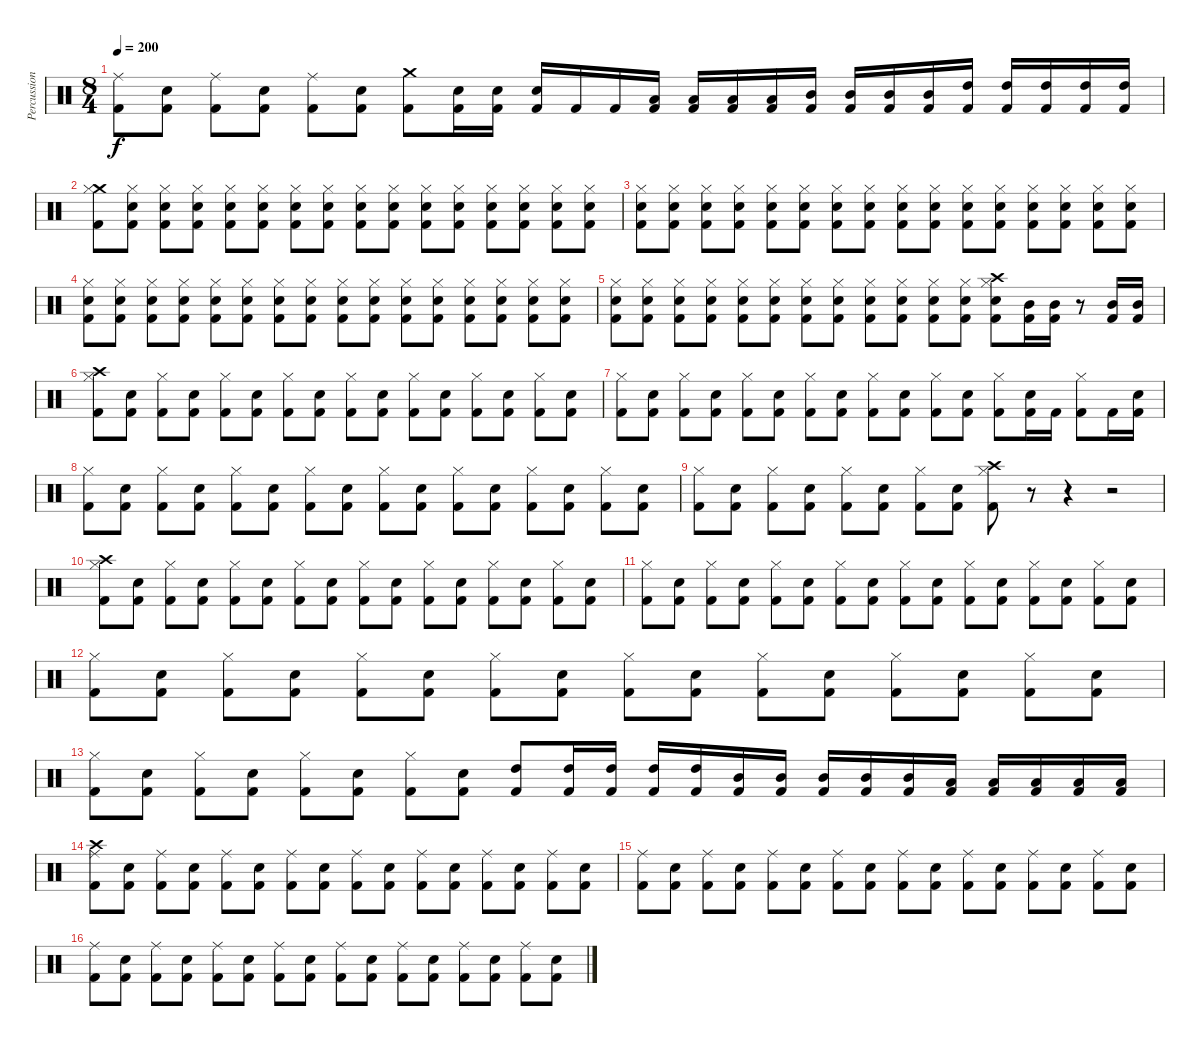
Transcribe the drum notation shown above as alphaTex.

\track ("Percussion" "Percussion") {instrument percussion}
\staff {score}
\articulation defaults
\ts (8 4)
\tempo 200
\clef neutral
\ks c
("Ride (middle)" "Kick (hit) 2").8{dy f} ("Electric Snare (hit)" "Kick (hit) 2").8 ("Ride (middle)" "Kick (hit) 2").8 ("Electric Snare (hit)" "Kick (hit) 2").8 ("Ride (middle)" "Kick (hit) 2").8 ("Electric Snare (hit)" "Kick (hit) 2").8 ("Crash medium (hit)" "Kick (hit) 2").8 ("Electric Snare (hit)" "Kick (hit) 2").16 ("Electric Snare (hit)" "Kick (hit) 2").16 ("Electric Snare (hit)" "Kick (hit) 2").16 "Kick (hit) 2".16 "Kick (hit) 2".16 ("Low Tom (hit)" "Kick (hit) 2").16 ("Low Tom (hit)" "Kick (hit) 2").16 ("Low Tom (hit)" "Kick (hit) 2").16 ("Low Tom (hit)" "Kick (hit) 2").16 ("Mid Tom (hit)" "Kick (hit) 2").16 ("Mid Tom (hit)" "Kick (hit) 2").16 ("Mid Tom (hit)" "Kick (hit) 2").16 ("Mid Tom (hit)" "Kick (hit) 2").16 ("High Tom (hit)" "Kick (hit) 2").16 ("High Tom (hit)" "Kick (hit) 2").16 ("High Tom (hit)" "Kick (hit) 2").16 ("High Tom (hit)" "Kick (hit) 2").16 ("High Tom (hit)" "Kick (hit) 2").16 |
("Crash medium (hit)" "Hi-Hat (closed)" "Kick (hit) 2").8 ("Hi-Hat (closed)" "Electric Snare (hit)" "Kick (hit) 2").8 ("Hi-Hat (closed)" "Electric Snare (hit)" "Kick (hit) 2").8 ("Hi-Hat (closed)" "Electric Snare (hit)" "Kick (hit) 2").8 ("Hi-Hat (closed)" "Electric Snare (hit)" "Kick (hit) 2").8 ("Hi-Hat (closed)" "Electric Snare (hit)" "Kick (hit) 2").8 ("Hi-Hat (closed)" "Electric Snare (hit)" "Kick (hit) 2").8 ("Hi-Hat (closed)" "Electric Snare (hit)" "Kick (hit) 2").8 ("Hi-Hat (closed)" "Electric Snare (hit)" "Kick (hit) 2").8 ("Hi-Hat (closed)" "Electric Snare (hit)" "Kick (hit) 2").8 ("Hi-Hat (closed)" "Electric Snare (hit)" "Kick (hit) 2").8 ("Hi-Hat (closed)" "Electric Snare (hit)" "Kick (hit) 2").8 ("Hi-Hat (closed)" "Electric Snare (hit)" "Kick (hit) 2").8 ("Hi-Hat (closed)" "Electric Snare (hit)" "Kick (hit) 2").8 ("Hi-Hat (closed)" "Electric Snare (hit)" "Kick (hit) 2").8 ("Hi-Hat (closed)" "Electric Snare (hit)" "Kick (hit) 2").8 |
("Hi-Hat (closed)" "Electric Snare (hit)" "Kick (hit) 2").8 ("Hi-Hat (closed)" "Electric Snare (hit)" "Kick (hit) 2").8 ("Hi-Hat (closed)" "Electric Snare (hit)" "Kick (hit) 2").8 ("Hi-Hat (closed)" "Electric Snare (hit)" "Kick (hit) 2").8 ("Hi-Hat (closed)" "Electric Snare (hit)" "Kick (hit) 2").8 ("Hi-Hat (closed)" "Electric Snare (hit)" "Kick (hit) 2").8 ("Hi-Hat (closed)" "Electric Snare (hit)" "Kick (hit) 2").8 ("Hi-Hat (closed)" "Electric Snare (hit)" "Kick (hit) 2").8 ("Hi-Hat (closed)" "Electric Snare (hit)" "Kick (hit) 2").8 ("Hi-Hat (closed)" "Electric Snare (hit)" "Kick (hit) 2").8 ("Hi-Hat (closed)" "Electric Snare (hit)" "Kick (hit) 2").8 ("Hi-Hat (closed)" "Electric Snare (hit)" "Kick (hit) 2").8 ("Hi-Hat (closed)" "Electric Snare (hit)" "Kick (hit) 2").8 ("Hi-Hat (closed)" "Electric Snare (hit)" "Kick (hit) 2").8 ("Hi-Hat (closed)" "Electric Snare (hit)" "Kick (hit) 2").8 ("Hi-Hat (closed)" "Electric Snare (hit)" "Kick (hit) 2").8 |
("Hi-Hat (closed)" "Electric Snare (hit)" "Kick (hit) 2").8 ("Hi-Hat (closed)" "Electric Snare (hit)" "Kick (hit) 2").8 ("Hi-Hat (closed)" "Electric Snare (hit)" "Kick (hit) 2").8 ("Hi-Hat (closed)" "Electric Snare (hit)" "Kick (hit) 2").8 ("Hi-Hat (closed)" "Electric Snare (hit)" "Kick (hit) 2").8 ("Hi-Hat (closed)" "Electric Snare (hit)" "Kick (hit) 2").8 ("Hi-Hat (closed)" "Electric Snare (hit)" "Kick (hit) 2").8 ("Hi-Hat (closed)" "Electric Snare (hit)" "Kick (hit) 2").8 ("Hi-Hat (closed)" "Electric Snare (hit)" "Kick (hit) 2").8 ("Hi-Hat (closed)" "Electric Snare (hit)" "Kick (hit) 2").8 ("Hi-Hat (closed)" "Electric Snare (hit)" "Kick (hit) 2").8 ("Hi-Hat (closed)" "Electric Snare (hit)" "Kick (hit) 2").8 ("Hi-Hat (closed)" "Electric Snare (hit)" "Kick (hit) 2").8 ("Hi-Hat (closed)" "Electric Snare (hit)" "Kick (hit) 2").8 ("Hi-Hat (closed)" "Electric Snare (hit)" "Kick (hit) 2").8 ("Hi-Hat (closed)" "Electric Snare (hit)" "Kick (hit) 2").8 |
("Hi-Hat (closed)" "Electric Snare (hit)" "Kick (hit) 2").8 ("Hi-Hat (closed)" "Electric Snare (hit)" "Kick (hit) 2").8 ("Hi-Hat (closed)" "Electric Snare (hit)" "Kick (hit) 2").8 ("Hi-Hat (closed)" "Electric Snare (hit)" "Kick (hit) 2").8 ("Hi-Hat (closed)" "Electric Snare (hit)" "Kick (hit) 2").8 ("Hi-Hat (closed)" "Electric Snare (hit)" "Kick (hit) 2").8 ("Hi-Hat (closed)" "Electric Snare (hit)" "Kick (hit) 2").8 ("Hi-Hat (closed)" "Electric Snare (hit)" "Kick (hit) 2").8 ("Hi-Hat (closed)" "Electric Snare (hit)" "Kick (hit) 2").8 ("Hi-Hat (closed)" "Electric Snare (hit)" "Kick (hit) 2").8 ("Hi-Hat (closed)" "Electric Snare (hit)" "Kick (hit) 2").8 ("Hi-Hat (closed)" "Electric Snare (hit)" "Kick (hit) 2").8 ("Crash high (hit)" "Hi-Hat (closed)" "Electric Snare (hit)" "Kick (hit) 2").8 ("Mid Tom (hit)" "Kick (hit) 2").16 ("Mid Tom (hit)" "Kick (hit) 2").16 r.8 ("Mid Tom (hit)" "Kick (hit) 2").16 ("Mid Tom (hit)" "Kick (hit) 2").16 |
("Crash high (hit)" "Hi-Hat (closed)" "Kick (hit) 2").8 ("Electric Snare (hit)" "Kick (hit) 2").8 ("Hi-Hat (closed)" "Kick (hit) 2").8 ("Electric Snare (hit)" "Kick (hit) 2").8 ("Hi-Hat (closed)" "Kick (hit) 2").8 ("Electric Snare (hit)" "Kick (hit) 2").8 ("Hi-Hat (closed)" "Kick (hit) 2").8 ("Electric Snare (hit)" "Kick (hit) 2").8 ("Hi-Hat (closed)" "Kick (hit) 2").8 ("Electric Snare (hit)" "Kick (hit) 2").8 ("Hi-Hat (closed)" "Kick (hit) 2").8 ("Electric Snare (hit)" "Kick (hit) 2").8 ("Hi-Hat (closed)" "Kick (hit) 2").8 ("Electric Snare (hit)" "Kick (hit) 2").8 ("Hi-Hat (closed)" "Kick (hit) 2").8 ("Electric Snare (hit)" "Kick (hit) 2").8 |
("Hi-Hat (closed)" "Kick (hit) 2").8 ("Electric Snare (hit)" "Kick (hit) 2").8 ("Hi-Hat (closed)" "Kick (hit) 2").8 ("Electric Snare (hit)" "Kick (hit) 2").8 ("Hi-Hat (closed)" "Kick (hit) 2").8 ("Electric Snare (hit)" "Kick (hit) 2").8 ("Hi-Hat (closed)" "Kick (hit) 2").8 ("Electric Snare (hit)" "Kick (hit) 2").8 ("Hi-Hat (closed)" "Kick (hit) 2").8 ("Electric Snare (hit)" "Kick (hit) 2").8 ("Hi-Hat (closed)" "Kick (hit) 2").8 ("Electric Snare (hit)" "Kick (hit) 2").8 ("Hi-Hat (closed)" "Kick (hit) 2").8 ("Electric Snare (hit)" "Kick (hit) 2").16 "Kick (hit) 2".16 ("Hi-Hat (closed)" "Kick (hit) 2").8 "Kick (hit) 2".16 ("Electric Snare (hit)" "Kick (hit) 2").16 |
("Hi-Hat (closed)" "Kick (hit) 2").8 ("Electric Snare (hit)" "Kick (hit) 2").8 ("Hi-Hat (closed)" "Kick (hit) 2").8 ("Electric Snare (hit)" "Kick (hit) 2").8 ("Hi-Hat (closed)" "Kick (hit) 2").8 ("Electric Snare (hit)" "Kick (hit) 2").8 ("Hi-Hat (closed)" "Kick (hit) 2").8 ("Electric Snare (hit)" "Kick (hit) 2").8 ("Hi-Hat (closed)" "Kick (hit) 2").8 ("Electric Snare (hit)" "Kick (hit) 2").8 ("Hi-Hat (closed)" "Kick (hit) 2").8 ("Electric Snare (hit)" "Kick (hit) 2").8 ("Hi-Hat (closed)" "Kick (hit) 2").8 ("Electric Snare (hit)" "Kick (hit) 2").8 ("Hi-Hat (closed)" "Kick (hit) 2").8 ("Electric Snare (hit)" "Kick (hit) 2").8 |
("Hi-Hat (closed)" "Kick (hit) 2").8 ("Electric Snare (hit)" "Kick (hit) 2").8 ("Hi-Hat (closed)" "Kick (hit) 2").8 ("Electric Snare (hit)" "Kick (hit) 2").8 ("Hi-Hat (closed)" "Kick (hit) 2").8 ("Electric Snare (hit)" "Kick (hit) 2").8 ("Hi-Hat (closed)" "Kick (hit) 2").8 ("Electric Snare (hit)" "Kick (hit) 2").8 ("Crash high (hit)" "Hi-Hat (closed)" "Kick (hit) 2").8 r.8 r.4 r.2 |
("Crash high (hit)" "Hi-Hat (closed)" "Kick (hit) 2").8 ("Electric Snare (hit)" "Kick (hit) 2").8 ("Hi-Hat (closed)" "Kick (hit) 2").8 ("Electric Snare (hit)" "Kick (hit) 2").8 ("Hi-Hat (closed)" "Kick (hit) 2").8 ("Electric Snare (hit)" "Kick (hit) 2").8 ("Hi-Hat (closed)" "Kick (hit) 2").8 ("Electric Snare (hit)" "Kick (hit) 2").8 ("Hi-Hat (closed)" "Kick (hit) 2").8 ("Electric Snare (hit)" "Kick (hit) 2").8 ("Hi-Hat (closed)" "Kick (hit) 2").8 ("Electric Snare (hit)" "Kick (hit) 2").8 ("Hi-Hat (closed)" "Kick (hit) 2").8 ("Electric Snare (hit)" "Kick (hit) 2").8 ("Hi-Hat (closed)" "Kick (hit) 2").8 ("Electric Snare (hit)" "Kick (hit) 2").8 |
("Hi-Hat (closed)" "Kick (hit) 2").8 ("Electric Snare (hit)" "Kick (hit) 2").8 ("Hi-Hat (closed)" "Kick (hit) 2").8 ("Electric Snare (hit)" "Kick (hit) 2").8 ("Hi-Hat (closed)" "Kick (hit) 2").8 ("Electric Snare (hit)" "Kick (hit) 2").8 ("Hi-Hat (closed)" "Kick (hit) 2").8 ("Electric Snare (hit)" "Kick (hit) 2").8 ("Hi-Hat (closed)" "Kick (hit) 2").8 ("Electric Snare (hit)" "Kick (hit) 2").8 ("Hi-Hat (closed)" "Kick (hit) 2").8 ("Electric Snare (hit)" "Kick (hit) 2").8 ("Hi-Hat (closed)" "Kick (hit) 2").8 ("Electric Snare (hit)" "Kick (hit) 2").8 ("Hi-Hat (closed)" "Kick (hit) 2").8 ("Electric Snare (hit)" "Kick (hit) 2").8 |
("Hi-Hat (closed)" "Kick (hit) 2").8 ("Electric Snare (hit)" "Kick (hit) 2").8 ("Hi-Hat (closed)" "Kick (hit) 2").8 ("Electric Snare (hit)" "Kick (hit) 2").8 ("Hi-Hat (closed)" "Kick (hit) 2").8 ("Electric Snare (hit)" "Kick (hit) 2").8 ("Hi-Hat (closed)" "Kick (hit) 2").8 ("Electric Snare (hit)" "Kick (hit) 2").8 ("Hi-Hat (closed)" "Kick (hit) 2").8 ("Electric Snare (hit)" "Kick (hit) 2").8 ("Hi-Hat (closed)" "Kick (hit) 2").8 ("Electric Snare (hit)" "Kick (hit) 2").8 ("Hi-Hat (closed)" "Kick (hit) 2").8 ("Electric Snare (hit)" "Kick (hit) 2").8 ("Hi-Hat (closed)" "Kick (hit) 2").8 ("Electric Snare (hit)" "Kick (hit) 2").8 |
("Hi-Hat (closed)" "Kick (hit) 2").8 ("Electric Snare (hit)" "Kick (hit) 2").8 ("Hi-Hat (closed)" "Kick (hit) 2").8 ("Electric Snare (hit)" "Kick (hit) 2").8 ("Hi-Hat (closed)" "Kick (hit) 2").8 ("Electric Snare (hit)" "Kick (hit) 2").8 ("Hi-Hat (closed)" "Kick (hit) 2").8 ("Electric Snare (hit)" "Kick (hit) 2").8 ("High Tom (hit)" "Kick (hit) 2").8 ("High Tom (hit)" "Kick (hit) 2").16 ("High Tom (hit)" "Kick (hit) 2").16 ("High Tom (hit)" "Kick (hit) 2").16 ("High Tom (hit)" "Kick (hit) 2").16 ("Mid Tom (hit)" "Kick (hit) 2").16 ("Mid Tom (hit)" "Kick (hit) 2").16 ("Mid Tom (hit)" "Kick (hit) 2").16 ("Mid Tom (hit)" "Kick (hit) 2").16 ("Mid Tom (hit)" "Kick (hit) 2").16 ("Low Tom (hit)" "Kick (hit) 2").16 ("Low Tom (hit)" "Kick (hit) 2").16 ("Low Tom (hit)" "Kick (hit) 2").16 ("Low Tom (hit)" "Kick (hit) 2").16 ("Low Tom (hit)" "Kick (hit) 2").16 |
("Crash high (hit)" "Ride (middle)" "Kick (hit) 2").8 ("Electric Snare (hit)" "Kick (hit) 2").8 ("Ride (middle)" "Kick (hit) 2").8 ("Electric Snare (hit)" "Kick (hit) 2").8 ("Ride (middle)" "Kick (hit) 2").8 ("Electric Snare (hit)" "Kick (hit) 2").8 ("Ride (middle)" "Kick (hit) 2").8 ("Electric Snare (hit)" "Kick (hit) 2").8 ("Ride (middle)" "Kick (hit) 2").8 ("Electric Snare (hit)" "Kick (hit) 2").8 ("Ride (middle)" "Kick (hit) 2").8 ("Electric Snare (hit)" "Kick (hit) 2").8 ("Ride (middle)" "Kick (hit) 2").8 ("Electric Snare (hit)" "Kick (hit) 2").8 ("Ride (middle)" "Kick (hit) 2").8 ("Electric Snare (hit)" "Kick (hit) 2").8 |
("Ride (middle)" "Kick (hit) 2").8 ("Electric Snare (hit)" "Kick (hit) 2").8 ("Ride (middle)" "Kick (hit) 2").8 ("Electric Snare (hit)" "Kick (hit) 2").8 ("Ride (middle)" "Kick (hit) 2").8 ("Electric Snare (hit)" "Kick (hit) 2").8 ("Ride (middle)" "Kick (hit) 2").8 ("Electric Snare (hit)" "Kick (hit) 2").8 ("Ride (middle)" "Kick (hit) 2").8 ("Electric Snare (hit)" "Kick (hit) 2").8 ("Ride (middle)" "Kick (hit) 2").8 ("Electric Snare (hit)" "Kick (hit) 2").8 ("Ride (middle)" "Kick (hit) 2").8 ("Electric Snare (hit)" "Kick (hit) 2").8 ("Ride (middle)" "Kick (hit) 2").8 ("Electric Snare (hit)" "Kick (hit) 2").8 |
("Ride (middle)" "Kick (hit) 2").8 ("Electric Snare (hit)" "Kick (hit) 2").8 ("Ride (middle)" "Kick (hit) 2").8 ("Electric Snare (hit)" "Kick (hit) 2").8 ("Ride (middle)" "Kick (hit) 2").8 ("Electric Snare (hit)" "Kick (hit) 2").8 ("Ride (middle)" "Kick (hit) 2").8 ("Electric Snare (hit)" "Kick (hit) 2").8 ("Ride (middle)" "Kick (hit) 2").8 ("Electric Snare (hit)" "Kick (hit) 2").8 ("Ride (middle)" "Kick (hit) 2").8 ("Electric Snare (hit)" "Kick (hit) 2").8 ("Ride (middle)" "Kick (hit) 2").8 ("Electric Snare (hit)" "Kick (hit) 2").8 ("Ride (middle)" "Kick (hit) 2").8 ("Electric Snare (hit)" "Kick (hit) 2").8
